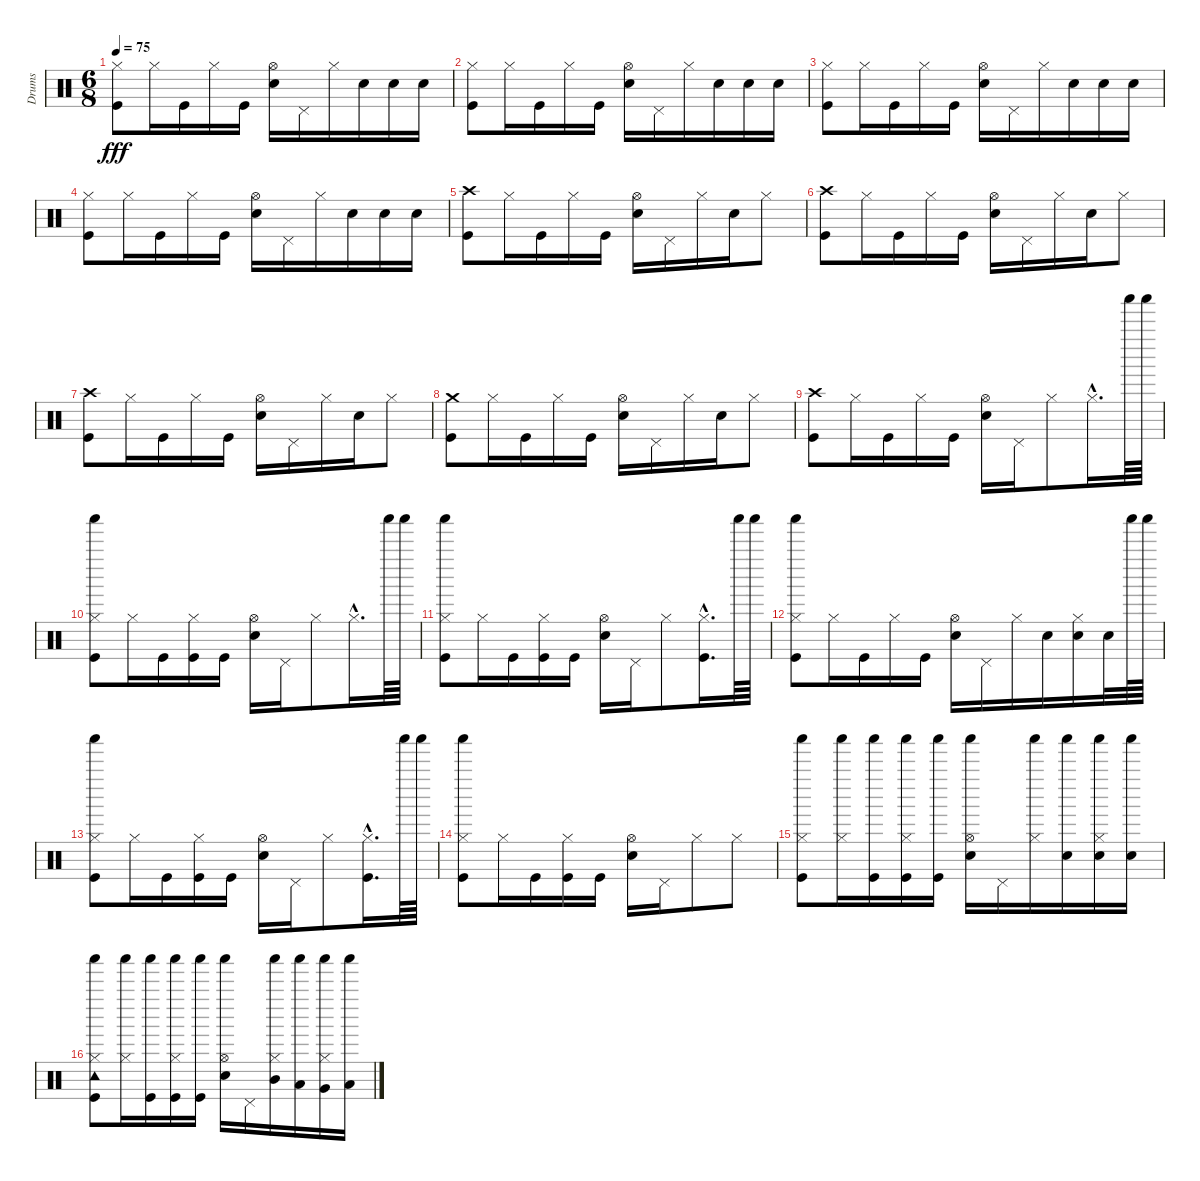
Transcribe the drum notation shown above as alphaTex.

\track ("Drums" "Drums") {instrument percussion}
\staff {score}
\articulation defaults
\ts (6 8)
\tempo 75
\clef neutral
\ks c
("Hi-Hat (closed)" "Kick (hit)").8{dy fff} "Hi-Hat (closed)".16 "Kick (hit)".16 "Hi-Hat (closed)".16 "Kick (hit)".16 ("Hi-Hat (open)" "Snare (hit) 2").16 "Pedal Hi-Hat (hit)".16 "Hi-Hat (closed)".16 "Snare (hit) 2".16 "Snare (hit) 2".16 "Snare (hit) 2".16 |
("Hi-Hat (closed)" "Kick (hit)").8 "Hi-Hat (closed)".16 "Kick (hit)".16 "Hi-Hat (closed)".16 "Kick (hit)".16 ("Hi-Hat (open)" "Snare (hit) 2").16 "Pedal Hi-Hat (hit)".16 "Hi-Hat (closed)".16 "Snare (hit) 2".16 "Snare (hit) 2".16 "Snare (hit) 2".16 |
("Hi-Hat (closed)" "Kick (hit)").8 "Hi-Hat (closed)".16 "Kick (hit)".16 "Hi-Hat (closed)".16 "Kick (hit)".16 ("Hi-Hat (open)" "Snare (hit) 2").16 "Pedal Hi-Hat (hit)".16 "Hi-Hat (closed)".16 "Snare (hit) 2".16 "Snare (hit) 2".16 "Snare (hit) 2".16 |
("Hi-Hat (closed)" "Kick (hit)").8 "Hi-Hat (closed)".16 "Kick (hit)".16 "Hi-Hat (closed)".16 "Kick (hit)".16 ("Hi-Hat (open)" "Snare (hit) 2").16 "Pedal Hi-Hat (hit)".16 "Hi-Hat (closed)".16 "Snare (hit) 2".16 "Snare (hit) 2".16 "Snare (hit) 2".16 |
("Crash high (hit)" "Kick (hit)").8 "Hi-Hat (closed)".16 "Kick (hit)".16 "Hi-Hat (closed)".16 "Kick (hit)".16 ("Hi-Hat (open)" "Snare (hit) 2").16 "Pedal Hi-Hat (hit)".16 "Hi-Hat (closed)".16 "Snare (hit) 2".16 "Hi-Hat (closed)".8 |
("Crash high (hit)" "Kick (hit)").8 "Hi-Hat (closed)".16 "Kick (hit)".16 "Hi-Hat (closed)".16 "Kick (hit)".16 ("Hi-Hat (open)" "Snare (hit) 2").16 "Pedal Hi-Hat (hit)".16 "Hi-Hat (closed)".16 "Snare (hit) 2".16 "Hi-Hat (closed)".8 |
("Crash high (hit)" "Kick (hit)").8 "Hi-Hat (closed)".16 "Kick (hit)".16 "Hi-Hat (closed)".16 "Kick (hit)".16 ("Hi-Hat (open)" "Snare (hit) 2").16 "Pedal Hi-Hat (hit)".16 "Hi-Hat (closed)".16 "Snare (hit) 2".16 "Hi-Hat (closed)".8 |
("Crash medium (hit)" "Kick (hit)").8 "Hi-Hat (closed)".16 "Kick (hit)".16 "Hi-Hat (closed)".16 "Kick (hit)".16 ("Hi-Hat (open)" "Snare (hit) 2").16 "Pedal Hi-Hat (hit)".16 "Hi-Hat (closed)".16 "Snare (hit) 2".16 "Hi-Hat (closed)".8 |
("Crash high (hit)" "Kick (hit)").8 "Hi-Hat (closed)".16 "Kick (hit)".16 "Hi-Hat (closed)".16 "Kick (hit)".16 ("Hi-Hat (open)" "Snare (hit) 2").16 "Pedal Hi-Hat (hit)".16 "Hi-Hat (closed)".8 "Hi-Hat (closed)"{hac}.16{d} "Shaker (hit)".64 "Shaker (hit)".64 |
("Hi-Hat (closed)" "Shaker (hit)" "Kick (hit)").8 "Hi-Hat (closed)".16 "Kick (hit)".16 ("Hi-Hat (closed)" "Kick (hit)").16 "Kick (hit)".16 ("Hi-Hat (open)" "Snare (hit) 2").16 "Pedal Hi-Hat (hit)".16 "Hi-Hat (closed)".8 "Hi-Hat (closed)"{hac}.16{d} "Shaker (hit)".64 "Shaker (hit)".64 |
("Hi-Hat (closed)" "Shaker (hit)" "Kick (hit)").8 "Hi-Hat (closed)".16 "Kick (hit)".16 ("Hi-Hat (closed)" "Kick (hit)").16 "Kick (hit)".16 ("Hi-Hat (open)" "Snare (hit) 2").16 "Pedal Hi-Hat (hit)".16 "Hi-Hat (closed)".8 ("Hi-Hat (closed)"{hac} "Kick (hit)"{hac}).16{d} "Shaker (hit)".64 "Shaker (hit)".64 |
("Hi-Hat (closed)" "Shaker (hit)" "Kick (hit)").8 "Hi-Hat (closed)".16 "Kick (hit)".16 "Hi-Hat (closed)".16 "Kick (hit)".16 ("Hi-Hat (open)" "Snare (hit) 2").16 "Pedal Hi-Hat (hit)".16 "Hi-Hat (closed)".16 "Snare (hit) 2".16 ("Hi-Hat (closed)" "Snare (hit) 2").16 "Snare (hit) 2".32 "Shaker (hit)".64 "Shaker (hit)".64 |
("Hi-Hat (closed)" "Shaker (hit)" "Kick (hit)").8 "Hi-Hat (closed)".16 "Kick (hit)".16 ("Hi-Hat (closed)" "Kick (hit)").16 "Kick (hit)".16 ("Hi-Hat (open)" "Snare (hit) 2").16 "Pedal Hi-Hat (hit)".16 "Hi-Hat (closed)".8 ("Hi-Hat (closed)"{hac} "Kick (hit)"{hac}).16{d} "Shaker (hit)".64 "Shaker (hit)".64 |
("Hi-Hat (closed)" "Shaker (hit)" "Kick (hit)").8 "Hi-Hat (closed)".16 "Kick (hit)".16 ("Hi-Hat (closed)" "Kick (hit)").16 "Kick (hit)".16 ("Hi-Hat (open)" "Snare (hit) 2").16 "Pedal Hi-Hat (hit)".16 "Hi-Hat (closed)".8 "Hi-Hat (closed)".8 |
("Hi-Hat (closed)" "Shaker (hit)" "Kick (hit)").8 ("Hi-Hat (closed)" "Shaker (hit)").16 ("Shaker (hit)" "Kick (hit)").16 ("Hi-Hat (closed)" "Shaker (hit)" "Kick (hit)").16 ("Shaker (hit)" "Kick (hit)").16 ("Hi-Hat (open)" "Shaker (hit)" "Snare (hit) 2").16 "Pedal Hi-Hat (hit)".16 ("Hi-Hat (closed)" "Shaker (hit)").16 ("Shaker (hit)" "Snare (hit) 2").16 ("Hi-Hat (closed)" "Shaker (hit)" "Snare (hit) 2").16 ("Shaker (hit)" "Snare (hit) 2").16 |
("Hi-Hat (closed)" "Shaker (hit)" "Tambourine (hit)" "Kick (hit)").8 ("Hi-Hat (closed)" "Shaker (hit)").16 ("Shaker (hit)" "Kick (hit)").16 ("Hi-Hat (closed)" "Shaker (hit)" "Kick (hit)").16 ("Shaker (hit)" "Kick (hit)").16 ("Hi-Hat (open)" "Shaker (hit)" "Snare (hit) 2").16 "Pedal Hi-Hat (hit)".16 ("Hi-Hat (closed)" "Shaker (hit)" "Mid Tom (hit)").16 ("Shaker (hit)" "Low Tom (hit)").16 ("Hi-Hat (closed)" "Shaker (hit)" "Very Low Tom (hit)").16 ("Shaker (hit)" "Low Floor Tom (hit)").16
